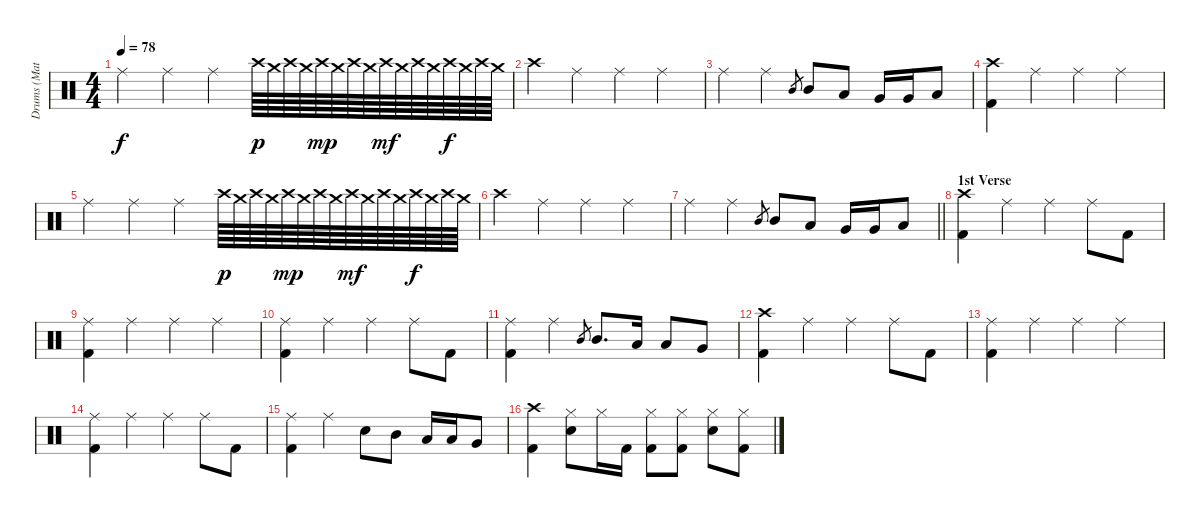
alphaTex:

\track ("Drums (Matt)" "Drums (Mat") {instrument percussion}
\staff {score}
\articulation defaults
\ts (4 4)
\tempo 78
\clef neutral
\ks c "Ride (middle)".4{dy f} "Ride (middle)".4 "Ride (middle)".4 "Crash high (hit)".64{dy p} "Crash medium (hit)".64 "Crash high (hit)".64 "Crash medium (hit)".64 "Crash high (hit)".64{dy mp} "Crash medium (hit)".64 "Crash high (hit)".64 "Crash medium (hit)".64 "Crash high (hit)".64{dy mf} "Crash medium (hit)".64 "Crash high (hit)".64 "Crash medium (hit)".64 "Crash high (hit)".64{dy f} "Crash medium (hit)".64 "Crash high (hit)".64 "Crash medium (hit)".64
|
"Crash high (hit)".4 "Ride (middle)".4 "Ride (middle)".4 "Ride (middle)".4 |
"Ride (middle)".4 "Ride (middle)".4 "Mid Tom (hit)".8{gr} "Mid Tom (hit)".8 "Low Tom (hit)".8 "Very Low Tom (hit)".16 "Very Low Tom (hit)".16 "Low Floor Tom (hit)".8 |
("Crash high (hit)" "Kick (hit) 2").4 "Ride (middle)".4 "Ride (middle)".4 "Ride (middle)".4 |
"Ride (middle)".4 "Ride (middle)".4 "Ride (middle)".4 "Crash high (hit)".64{dy p} "Crash medium (hit)".64 "Crash high (hit)".64 "Crash medium (hit)".64 "Crash high (hit)".64{dy mp} "Crash medium (hit)".64 "Crash high (hit)".64 "Crash medium (hit)".64 "Crash high (hit)".64{dy mf} "Crash medium (hit)".64 "Crash high (hit)".64 "Crash medium (hit)".64 "Crash high (hit)".64{dy f} "Crash medium (hit)".64 "Crash high (hit)".64 "Crash medium (hit)".64 |
"Crash high (hit)".4 "Ride (middle)".4 "Ride (middle)".4 "Ride (middle)".4 |
\barLineRight lightlight "Ride (middle)".4 "Ride (middle)".4 "Mid Tom (hit)".8{gr} "Mid Tom (hit)".8 "Low Tom (hit)".8 "Very Low Tom (hit)".16 "Very Low Tom (hit)".16 "Low Floor Tom (hit)".8
|
\section ("" "1st Verse")
("Crash high (hit)" "Kick (hit) 2").4 "Ride (middle)".4 "Ride (middle)".4 "Ride (middle)".8 "Kick (hit) 2".8 |
("Ride (middle)" "Kick (hit) 2").4 "Ride (middle)".4 "Ride (middle)".4 "Ride (middle)".4 |
("Ride (middle)" "Kick (hit) 2").4 "Ride (middle)".4 "Ride (middle)".4 "Ride (middle)".8 "Kick (hit) 2".8 |
("Ride (middle)" "Kick (hit) 2").4 "Ride (middle)".4 "Mid Tom (hit)".8{gr} "Mid Tom (hit)".8{d} "Low Tom (hit)".16 "Low Tom (hit)".8 "Very Low Tom (hit)".8 |
("Crash high (hit)" "Kick (hit) 2").4 "Ride (middle)".4 "Ride (middle)".4 "Ride (middle)".8 "Kick (hit) 2".8 |
("Ride (middle)" "Kick (hit) 2").4 "Ride (middle)".4 "Ride (middle)".4 "Ride (middle)".4 |
("Ride (middle)" "Kick (hit) 2").4 "Ride (middle)".4 "Ride (middle)".4 "Ride (middle)".8 "Kick (hit) 2".8 |
("Ride (middle)" "Kick (hit) 2").4 "Ride (middle)".4 "Snare (hit) 2".8 "Mid Tom (hit)".8 "Low Tom (hit)".16 "Low Tom (hit)".16 "Very Low Tom (hit)".8 |
("Crash high (hit)" "Kick (hit) 2").4 ("Hi-Hat (closed)" "Snare (hit) 2").8 "Hi-Hat (closed)".16 "Kick (hit) 2".16 ("Hi-Hat (closed)" "Kick (hit) 2").8 ("Hi-Hat (closed)" "Kick (hit) 2").8 ("Hi-Hat (closed)" "Snare (hit) 2").8 ("Hi-Hat (closed)" "Kick (hit) 2").8
